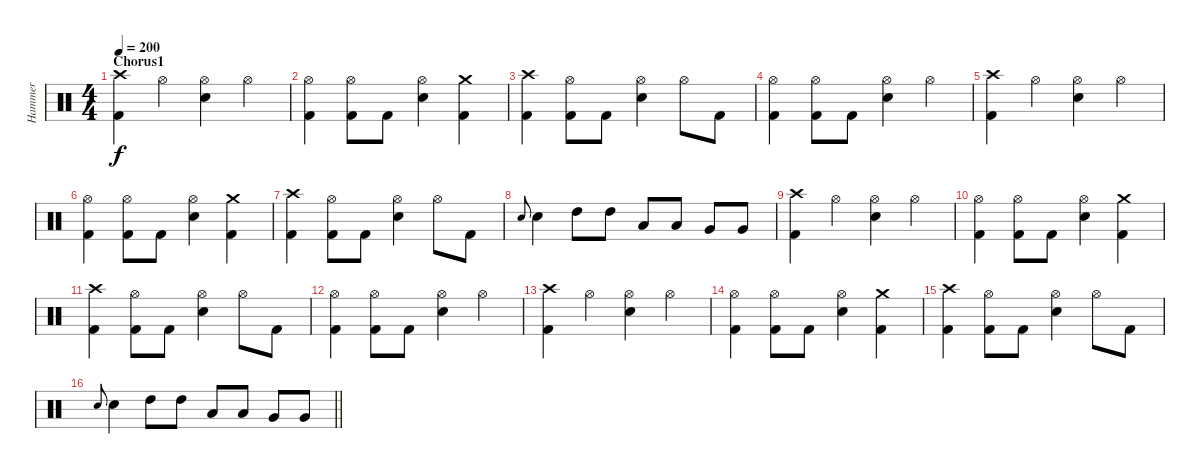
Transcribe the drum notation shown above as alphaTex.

\track ("Hammer" "Hammer") {instrument percussion}
\staff {score}
\articulation defaults
\ts (4 4)
\section ("" "Chorus1")
\tempo 200
\clef neutral
\ks c
("Kick (hit) 2" "Crash high (hit)").4{dy f} "Hi-Hat (open)".4 ("Hi-Hat (open)" "Snare (hit) 2").4 "Hi-Hat (open)".4 |
("Kick (hit) 2" "Hi-Hat (open)").4 ("Kick (hit) 2" "Hi-Hat (open)").8 "Kick (hit) 2".8 ("Hi-Hat (open)" "Snare (hit) 2").4 ("Kick (hit) 2" "Crash medium (hit)").4 |
("Kick (hit) 2" "Crash high (hit)").4 ("Kick (hit) 2" "Hi-Hat (open)").8 "Kick (hit) 2".8 ("Snare (hit) 2" "Hi-Hat (open)").4 "Hi-Hat (open)".8 "Kick (hit) 2".8 |
("Kick (hit) 2" "Hi-Hat (open)").4 ("Kick (hit) 2" "Hi-Hat (open)").8 "Kick (hit) 2".8 ("Snare (hit) 2" "Hi-Hat (open)").4 "Hi-Hat (open)".4 |
("Kick (hit) 2" "Crash high (hit)").4 "Hi-Hat (open)".4 ("Hi-Hat (open)" "Snare (hit) 2").4 "Hi-Hat (open)".4 |
("Kick (hit) 2" "Hi-Hat (open)").4 ("Kick (hit) 2" "Hi-Hat (open)").8 "Kick (hit) 2".8 ("Hi-Hat (open)" "Snare (hit) 2").4 ("Kick (hit) 2" "Crash medium (hit)").4 |
("Kick (hit) 2" "Crash high (hit)").4 ("Kick (hit) 2" "Hi-Hat (open)").8 "Kick (hit) 2".8 ("Snare (hit) 2" "Hi-Hat (open)").4 "Hi-Hat (open)".8 "Kick (hit) 2".8 |
"Electric Snare (hit)".8{gr onbeat} "Electric Snare (hit)".4 "High Tom (hit)".8 "High Tom (hit)".8 "Low Tom (hit)".8 "Low Tom (hit)".8 "Very Low Tom (hit)".8 "Very Low Tom (hit)".8 |
("Kick (hit) 2" "Crash high (hit)").4 "Hi-Hat (open)".4 ("Hi-Hat (open)" "Snare (hit) 2").4 "Hi-Hat (open)".4 |
("Kick (hit) 2" "Hi-Hat (open)").4 ("Kick (hit) 2" "Hi-Hat (open)").8 "Kick (hit) 2".8 ("Hi-Hat (open)" "Snare (hit) 2").4 ("Kick (hit) 2" "Crash medium (hit)").4 |
("Kick (hit) 2" "Crash high (hit)").4 ("Kick (hit) 2" "Hi-Hat (open)").8 "Kick (hit) 2".8 ("Snare (hit) 2" "Hi-Hat (open)").4 "Hi-Hat (open)".8 "Kick (hit) 2".8 |
("Kick (hit) 2" "Hi-Hat (open)").4 ("Kick (hit) 2" "Hi-Hat (open)").8 "Kick (hit) 2".8 ("Snare (hit) 2" "Hi-Hat (open)").4 "Hi-Hat (open)".4 |
("Kick (hit) 2" "Crash high (hit)").4 "Hi-Hat (open)".4 ("Hi-Hat (open)" "Snare (hit) 2").4 "Hi-Hat (open)".4 |
("Kick (hit) 2" "Hi-Hat (open)").4 ("Kick (hit) 2" "Hi-Hat (open)").8 "Kick (hit) 2".8 ("Hi-Hat (open)" "Snare (hit) 2").4 ("Kick (hit) 2" "Crash medium (hit)").4 |
("Kick (hit) 2" "Crash high (hit)").4 ("Kick (hit) 2" "Hi-Hat (open)").8 "Kick (hit) 2".8 ("Snare (hit) 2" "Hi-Hat (open)").4 "Hi-Hat (open)".8 "Kick (hit) 2".8 |
\barLineRight lightlight "Snare (hit) 2".8{gr onbeat} "Snare (hit) 2".4 "High Tom (hit)".8 "High Tom (hit)".8 "Low Tom (hit)".8 "Low Tom (hit)".8 "Very Low Tom (hit)".8 "Very Low Tom (hit)".8
